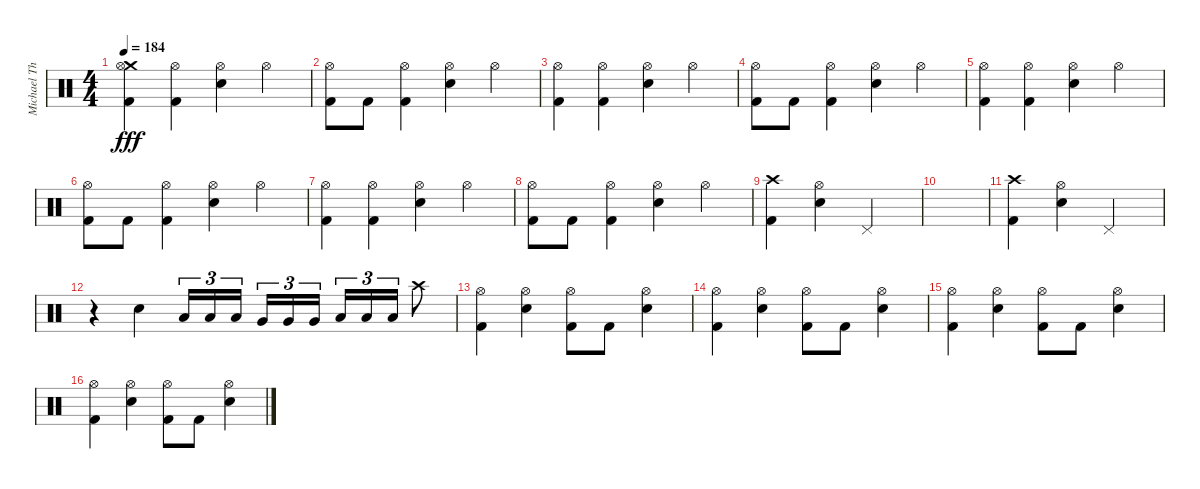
\track ("Michael Thomas" "Michael Th") {instrument percussion}
\staff {score}
\articulation defaults
\ts (4 4)
\tempo 184
\clef neutral
\ks c
("Crash medium (hit)" "Hi-Hat (open)" "Kick (hit) 2").4{dy fff} ("Hi-Hat (open)" "Kick (hit) 2").4 ("Hi-Hat (open)" "Snare (hit) 2").4 "Hi-Hat (open)".4 |
("Hi-Hat (open)" "Kick (hit) 2").8 "Kick (hit) 2".8 ("Hi-Hat (open)" "Kick (hit) 2").4 ("Hi-Hat (open)" "Snare (hit) 2").4 "Hi-Hat (open)".4 |
("Hi-Hat (open)" "Kick (hit) 2").4 ("Hi-Hat (open)" "Kick (hit) 2").4 ("Hi-Hat (open)" "Snare (hit) 2").4 "Hi-Hat (open)".4 |
("Hi-Hat (open)" "Kick (hit) 2").8 "Kick (hit) 2".8 ("Hi-Hat (open)" "Kick (hit) 2").4 ("Hi-Hat (open)" "Snare (hit) 2").4 "Hi-Hat (open)".4 |
("Hi-Hat (open)" "Kick (hit) 2").4 ("Hi-Hat (open)" "Kick (hit) 2").4 ("Hi-Hat (open)" "Snare (hit) 2").4 "Hi-Hat (open)".4 |
("Hi-Hat (open)" "Kick (hit) 2").8 "Kick (hit) 2".8 ("Hi-Hat (open)" "Kick (hit) 2").4 ("Hi-Hat (open)" "Snare (hit) 2").4 "Hi-Hat (open)".4 |
("Hi-Hat (open)" "Kick (hit) 2").4 ("Hi-Hat (open)" "Kick (hit) 2").4 ("Hi-Hat (open)" "Snare (hit) 2").4 "Hi-Hat (open)".4 |
("Hi-Hat (open)" "Kick (hit) 2").8 "Kick (hit) 2".8 ("Hi-Hat (open)" "Kick (hit) 2").4 ("Hi-Hat (open)" "Snare (hit) 2").4 "Hi-Hat (open)".4 |
("Crash high (hit)" "Kick (hit) 2").4 ("Hi-Hat (open)" "Snare (hit) 2").4 "Pedal Hi-Hat (hit)".2 |
|
("Crash high (hit)" "Kick (hit) 2").4 ("Hi-Hat (open)" "Snare (hit) 2").4 "Pedal Hi-Hat (hit)".2 |
r.4 "Snare (hit) 2".4 "Low Tom (hit)".16{tu (3 2)} "Low Tom (hit)".16{tu (3 2)} "Low Tom (hit)".16{tu (3 2) beam splitsecondary} "Very Low Tom (hit)".16{tu (3 2)} "Very Low Tom (hit)".16{tu (3 2)} "Very Low Tom (hit)".16{tu (3 2)} "Low Floor Tom (hit)".16{tu (3 2)} "Low Floor Tom (hit)".16{tu (3 2)} "Low Floor Tom (hit)".16{tu (3 2)} "Crash high (hit)".8 |
("Hi-Hat (open)" "Kick (hit) 2").4 ("Hi-Hat (open)" "Snare (hit) 2").4 ("Hi-Hat (open)" "Kick (hit) 2").8 "Kick (hit) 2".8 ("Hi-Hat (open)" "Snare (hit) 2").4 |
("Hi-Hat (open)" "Kick (hit) 2").4 ("Hi-Hat (open)" "Snare (hit) 2").4 ("Hi-Hat (open)" "Kick (hit) 2").8 "Kick (hit) 2".8 ("Hi-Hat (open)" "Snare (hit) 2").4 |
("Hi-Hat (open)" "Kick (hit) 2").4 ("Hi-Hat (open)" "Snare (hit) 2").4 ("Hi-Hat (open)" "Kick (hit) 2").8 "Kick (hit) 2".8 ("Hi-Hat (open)" "Snare (hit) 2").4 |
("Hi-Hat (open)" "Kick (hit) 2").4 ("Hi-Hat (open)" "Snare (hit) 2").4 ("Hi-Hat (open)" "Kick (hit) 2").8 "Kick (hit) 2".8 ("Hi-Hat (open)" "Snare (hit) 2").4
